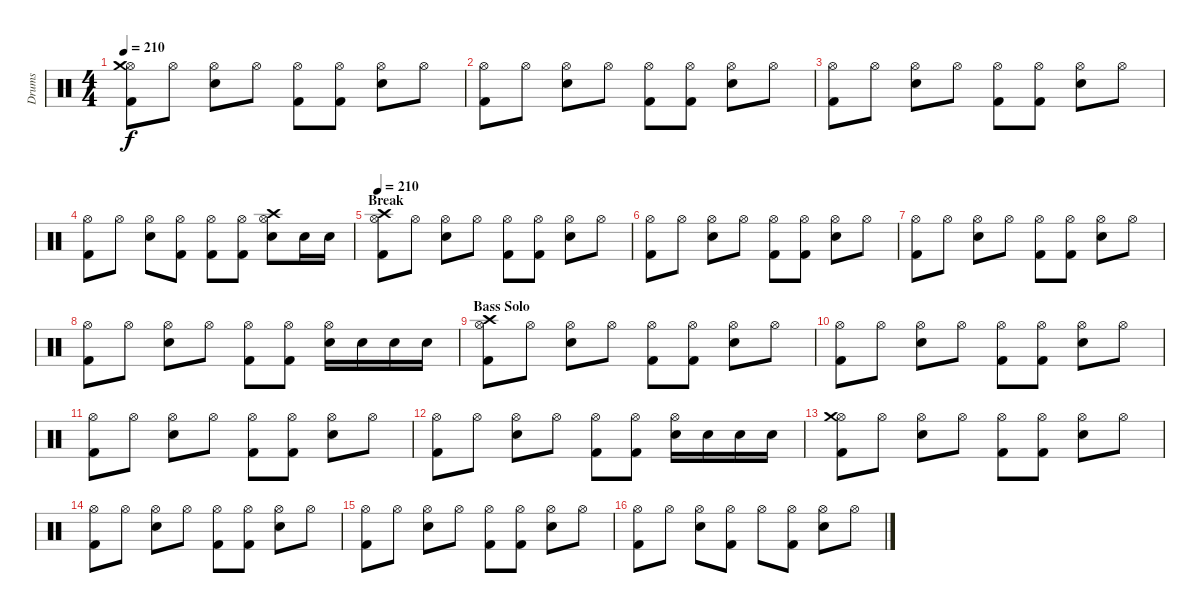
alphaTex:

\track ("Drums" "Drums") {instrument percussion}
\staff {score}
\articulation defaults
\ts (4 4)
\tempo 210
\clef neutral
\ks c
("Hi-Hat (open)" "Crash medium (hit)" "Kick (hit) 2").8{dy f} "Hi-Hat (open)".8 ("Hi-Hat (open)" "Electric Snare (hit)").8 "Hi-Hat (open)".8 ("Hi-Hat (open)" "Kick (hit) 2").8 ("Hi-Hat (open)" "Kick (hit) 2").8 ("Hi-Hat (open)" "Electric Snare (hit)").8 "Hi-Hat (open)".8 |
("Hi-Hat (open)" "Kick (hit) 2").8 "Hi-Hat (open)".8 ("Hi-Hat (open)" "Electric Snare (hit)").8 "Hi-Hat (open)".8 ("Hi-Hat (open)" "Kick (hit) 2").8 ("Hi-Hat (open)" "Kick (hit) 2").8 ("Hi-Hat (open)" "Electric Snare (hit)").8 "Hi-Hat (open)".8 |
("Hi-Hat (open)" "Kick (hit) 2").8 "Hi-Hat (open)".8 ("Hi-Hat (open)" "Electric Snare (hit)").8 "Hi-Hat (open)".8 ("Hi-Hat (open)" "Kick (hit) 2").8 ("Hi-Hat (open)" "Kick (hit) 2").8 ("Hi-Hat (open)" "Electric Snare (hit)").8 "Hi-Hat (open)".8 |
("Hi-Hat (open)" "Kick (hit) 2").8 "Hi-Hat (open)".8 ("Hi-Hat (open)" "Electric Snare (hit)").8 ("Hi-Hat (open)" "Kick (hit) 2").8 ("Hi-Hat (open)" "Kick (hit) 2").8 ("Hi-Hat (open)" "Kick (hit) 2").8 ("Hi-Hat (open)" "Crash high (hit)" "Electric Snare (hit)").8 "Electric Snare (hit)".16 "Electric Snare (hit)".16 |
\section ("" "Break")
\tempo 210
("Hi-Hat (open)" "Crash high (hit)" "Kick (hit) 2").8 "Hi-Hat (open)".8 ("Hi-Hat (open)" "Electric Snare (hit)").8 "Hi-Hat (open)".8 ("Hi-Hat (open)" "Kick (hit) 2").8 ("Hi-Hat (open)" "Kick (hit) 2").8 ("Hi-Hat (open)" "Electric Snare (hit)").8 "Hi-Hat (open)".8 |
("Hi-Hat (open)" "Kick (hit) 2").8 "Hi-Hat (open)".8 ("Hi-Hat (open)" "Electric Snare (hit)").8 "Hi-Hat (open)".8 ("Hi-Hat (open)" "Kick (hit) 2").8 ("Hi-Hat (open)" "Kick (hit) 2").8 ("Hi-Hat (open)" "Electric Snare (hit)").8 "Hi-Hat (open)".8 |
("Hi-Hat (open)" "Kick (hit) 2").8 "Hi-Hat (open)".8 ("Hi-Hat (open)" "Electric Snare (hit)").8 "Hi-Hat (open)".8 ("Hi-Hat (open)" "Kick (hit) 2").8 ("Hi-Hat (open)" "Kick (hit) 2").8 ("Hi-Hat (open)" "Electric Snare (hit)").8 "Hi-Hat (open)".8 |
("Hi-Hat (open)" "Kick (hit) 2").8 "Hi-Hat (open)".8 ("Hi-Hat (open)" "Electric Snare (hit)").8 "Hi-Hat (open)".8 ("Hi-Hat (open)" "Kick (hit) 2").8 ("Hi-Hat (open)" "Kick (hit) 2").8 ("Hi-Hat (open)" "Electric Snare (hit)").16 "Electric Snare (hit)".16 "Electric Snare (hit)".16 "Electric Snare (hit)".16 |
\section ("" "Bass Solo")
("Hi-Hat (open)" "Crash high (hit)" "Kick (hit) 2").8 "Hi-Hat (open)".8 ("Hi-Hat (open)" "Electric Snare (hit)").8 "Hi-Hat (open)".8 ("Hi-Hat (open)" "Kick (hit) 2").8 ("Hi-Hat (open)" "Kick (hit) 2").8 ("Hi-Hat (open)" "Electric Snare (hit)").8 "Hi-Hat (open)".8 |
("Hi-Hat (open)" "Kick (hit) 2").8 "Hi-Hat (open)".8 ("Hi-Hat (open)" "Electric Snare (hit)").8 "Hi-Hat (open)".8 ("Hi-Hat (open)" "Kick (hit) 2").8 ("Hi-Hat (open)" "Kick (hit) 2").8 ("Hi-Hat (open)" "Electric Snare (hit)").8 "Hi-Hat (open)".8 |
("Hi-Hat (open)" "Kick (hit) 2").8 "Hi-Hat (open)".8 ("Hi-Hat (open)" "Electric Snare (hit)").8 "Hi-Hat (open)".8 ("Hi-Hat (open)" "Kick (hit) 2").8 ("Hi-Hat (open)" "Kick (hit) 2").8 ("Hi-Hat (open)" "Electric Snare (hit)").8 "Hi-Hat (open)".8 |
("Hi-Hat (open)" "Kick (hit) 2").8 "Hi-Hat (open)".8 ("Hi-Hat (open)" "Electric Snare (hit)").8 "Hi-Hat (open)".8 ("Hi-Hat (open)" "Kick (hit) 2").8 ("Hi-Hat (open)" "Kick (hit) 2").8 ("Hi-Hat (open)" "Electric Snare (hit)").16 "Electric Snare (hit)".16 "Electric Snare (hit)".16 "Electric Snare (hit)".16 |
("Hi-Hat (open)" "Crash medium (hit)" "Kick (hit) 2").8 "Hi-Hat (open)".8 ("Hi-Hat (open)" "Electric Snare (hit)").8 "Hi-Hat (open)".8 ("Hi-Hat (open)" "Kick (hit) 2").8 ("Hi-Hat (open)" "Kick (hit) 2").8 ("Hi-Hat (open)" "Electric Snare (hit)").8 "Hi-Hat (open)".8 |
("Hi-Hat (open)" "Kick (hit) 2").8 "Hi-Hat (open)".8 ("Hi-Hat (open)" "Electric Snare (hit)").8 "Hi-Hat (open)".8 ("Hi-Hat (open)" "Kick (hit) 2").8 ("Hi-Hat (open)" "Kick (hit) 2").8 ("Hi-Hat (open)" "Electric Snare (hit)").8 "Hi-Hat (open)".8 |
("Hi-Hat (open)" "Kick (hit) 2").8 "Hi-Hat (open)".8 ("Hi-Hat (open)" "Electric Snare (hit)").8 "Hi-Hat (open)".8 ("Hi-Hat (open)" "Kick (hit) 2").8 ("Hi-Hat (open)" "Kick (hit) 2").8 ("Hi-Hat (open)" "Electric Snare (hit)").8 "Hi-Hat (open)".8 |
("Hi-Hat (open)" "Kick (hit) 2").8 "Hi-Hat (open)".8 ("Hi-Hat (open)" "Electric Snare (hit)").8 ("Hi-Hat (open)" "Kick (hit) 2").8 "Hi-Hat (open)".8 ("Hi-Hat (open)" "Kick (hit) 2").8 ("Hi-Hat (open)" "Electric Snare (hit)").8 "Hi-Hat (open)".8
